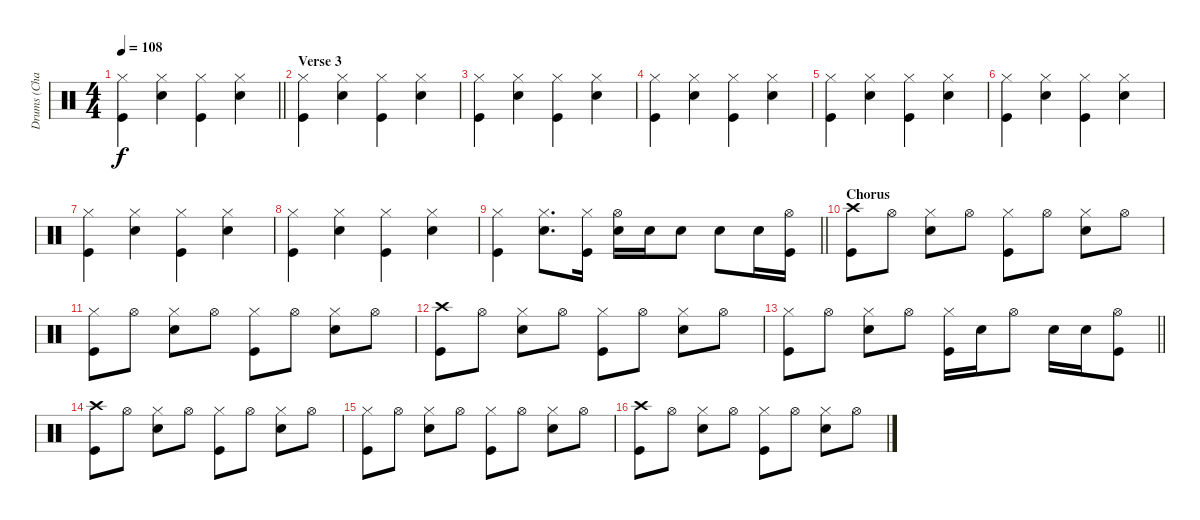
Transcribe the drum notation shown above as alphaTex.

\track ("Drums (Chad Smith)" "Drums (Cha") {instrument percussion}
\staff {score}
\articulation defaults
\ts (4 4)
\tempo 108
\clef neutral
\barLineRight lightlight
\ks c
("Hi-Hat (closed)" "Kick (hit)").4{dy f} ("Hi-Hat (closed)" "Snare (hit) 2").4 ("Hi-Hat (closed)" "Kick (hit)").4 ("Hi-Hat (closed)" "Snare (hit) 2").4 |
\section ("" "Verse 3")
("Hi-Hat (closed)" "Kick (hit)").4 ("Hi-Hat (closed)" "Snare (hit) 2").4 ("Hi-Hat (closed)" "Kick (hit)").4 ("Hi-Hat (closed)" "Snare (hit) 2").4 |
("Hi-Hat (closed)" "Kick (hit)").4 ("Hi-Hat (closed)" "Snare (hit) 2").4 ("Hi-Hat (closed)" "Kick (hit)").4 ("Hi-Hat (closed)" "Snare (hit) 2").4 |
("Hi-Hat (closed)" "Kick (hit)").4 ("Hi-Hat (closed)" "Snare (hit) 2").4 ("Hi-Hat (closed)" "Kick (hit)").4 ("Hi-Hat (closed)" "Snare (hit) 2").4 |
("Hi-Hat (closed)" "Kick (hit)").4 ("Hi-Hat (closed)" "Snare (hit) 2").4 ("Hi-Hat (closed)" "Kick (hit)").4 ("Hi-Hat (closed)" "Snare (hit) 2").4 |
("Hi-Hat (closed)" "Kick (hit)").4 ("Hi-Hat (closed)" "Snare (hit) 2").4 ("Hi-Hat (closed)" "Kick (hit)").4 ("Hi-Hat (closed)" "Snare (hit) 2").4 |
("Hi-Hat (closed)" "Kick (hit)").4 ("Hi-Hat (closed)" "Snare (hit) 2").4 ("Hi-Hat (closed)" "Kick (hit)").4 ("Hi-Hat (closed)" "Snare (hit) 2").4 |
("Hi-Hat (closed)" "Kick (hit)").4 ("Hi-Hat (closed)" "Snare (hit) 2").4 ("Hi-Hat (closed)" "Kick (hit)").4 ("Hi-Hat (closed)" "Snare (hit) 2").4 |
\barLineRight lightlight
("Hi-Hat (closed)" "Kick (hit)").4 ("Hi-Hat (closed)" "Snare (hit) 2").8{d} ("Hi-Hat (closed)" "Kick (hit)").16 ("Hi-Hat (open)" "Snare (hit) 2").16 "Snare (hit) 2".16 "Snare (hit) 2".8 "Snare (hit) 2".8 "Snare (hit) 2".16 ("Hi-Hat (open)" "Kick (hit)").16 |
\section ("" "Chorus")
("Crash high (hit)" "Kick (hit)").8 "Hi-Hat (open)".8 ("Hi-Hat (closed)" "Snare (hit) 2").8 "Hi-Hat (open)".8 ("Hi-Hat (closed)" "Kick (hit)").8 "Hi-Hat (open)".8 ("Hi-Hat (closed)" "Snare (hit) 2").8 "Hi-Hat (open)".8 |
("Hi-Hat (closed)" "Kick (hit)").8 "Hi-Hat (open)".8 ("Hi-Hat (closed)" "Snare (hit) 2").8 "Hi-Hat (open)".8 ("Hi-Hat (closed)" "Kick (hit)").8 "Hi-Hat (open)".8 ("Hi-Hat (closed)" "Snare (hit) 2").8 "Hi-Hat (open)".8 |
("Crash high (hit)" "Kick (hit)").8 "Hi-Hat (open)".8 ("Hi-Hat (closed)" "Snare (hit) 2").8 "Hi-Hat (open)".8 ("Hi-Hat (closed)" "Kick (hit)").8 "Hi-Hat (open)".8 ("Hi-Hat (closed)" "Snare (hit) 2").8 "Hi-Hat (open)".8 |
\barLineRight lightlight
("Hi-Hat (closed)" "Kick (hit)").8 "Hi-Hat (open)".8 ("Hi-Hat (closed)" "Snare (hit) 2").8 "Hi-Hat (open)".8 ("Hi-Hat (closed)" "Kick (hit)").16 "Snare (hit) 2".16 "Hi-Hat (open)".8 "Snare (hit) 2".16 "Snare (hit) 2".16 ("Hi-Hat (open)" "Kick (hit)").8 |
("Crash high (hit)" "Kick (hit)").8 "Hi-Hat (open)".8 ("Hi-Hat (closed)" "Snare (hit) 2").8 "Hi-Hat (open)".8 ("Hi-Hat (closed)" "Kick (hit)").8 "Hi-Hat (open)".8 ("Hi-Hat (closed)" "Snare (hit) 2").8 "Hi-Hat (open)".8 |
("Hi-Hat (closed)" "Kick (hit)").8 "Hi-Hat (open)".8 ("Hi-Hat (closed)" "Snare (hit) 2").8 "Hi-Hat (open)".8 ("Hi-Hat (closed)" "Kick (hit)").8 "Hi-Hat (open)".8 ("Hi-Hat (closed)" "Snare (hit) 2").8 "Hi-Hat (open)".8 |
("Crash high (hit)" "Kick (hit)").8 "Hi-Hat (open)".8 ("Hi-Hat (closed)" "Snare (hit) 2").8 "Hi-Hat (open)".8 ("Hi-Hat (closed)" "Kick (hit)").8 "Hi-Hat (open)".8 ("Hi-Hat (closed)" "Snare (hit) 2").8 "Hi-Hat (open)".8
